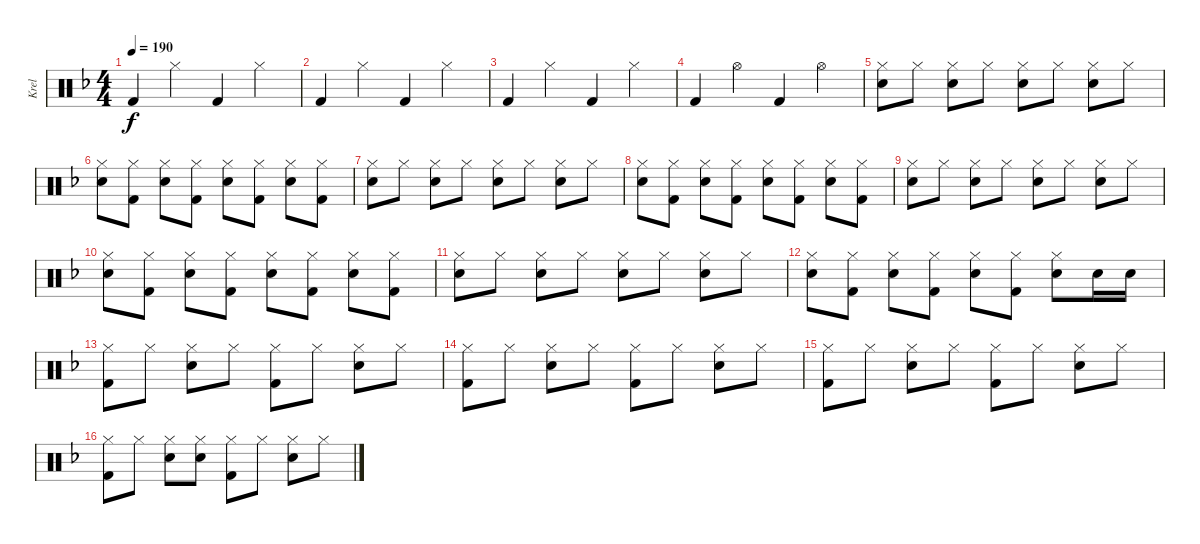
\track ("Krel" "Krel") {instrument percussion}
\staff {score}
\articulation defaults
\ts (4 4)
\tempo 190
\clef neutral
\ks f "Kick (hit) 2".4{dy f} "Hi-Hat (closed)".4 "Kick (hit) 2".4 "Hi-Hat (closed)".4
|
"Kick (hit) 2".4 "Hi-Hat (closed)".4 "Kick (hit) 2".4 "Hi-Hat (closed)".4 |
"Kick (hit) 2".4 "Hi-Hat (closed)".4 "Kick (hit) 2".4 "Hi-Hat (closed)".4 |
"Kick (hit) 2".4 "Hi-Hat (open)".4 "Kick (hit) 2".4 "Hi-Hat (open)".4 |
("Hi-Hat (closed)" "Snare (hit) 2").8 "Hi-Hat (closed)".8 ("Hi-Hat (closed)" "Snare (hit) 2").8 "Hi-Hat (closed)".8 ("Hi-Hat (closed)" "Snare (hit) 2").8 "Hi-Hat (closed)".8 ("Hi-Hat (closed)" "Snare (hit) 2").8 "Hi-Hat (closed)".8 |
("Hi-Hat (closed)" "Snare (hit) 2").8 ("Hi-Hat (closed)" "Kick (hit) 2").8 ("Hi-Hat (closed)" "Snare (hit) 2").8 ("Hi-Hat (closed)" "Kick (hit) 2").8 ("Hi-Hat (closed)" "Snare (hit) 2").8 ("Hi-Hat (closed)" "Kick (hit) 2").8 ("Hi-Hat (closed)" "Snare (hit) 2").8 ("Hi-Hat (closed)" "Kick (hit) 2").8 |
("Hi-Hat (closed)" "Snare (hit) 2").8 "Hi-Hat (closed)".8 ("Hi-Hat (closed)" "Snare (hit) 2").8 "Hi-Hat (closed)".8 ("Hi-Hat (closed)" "Snare (hit) 2").8 "Hi-Hat (closed)".8 ("Hi-Hat (closed)" "Snare (hit) 2").8 "Hi-Hat (closed)".8 |
("Hi-Hat (closed)" "Snare (hit) 2").8 ("Hi-Hat (closed)" "Kick (hit) 2").8 ("Hi-Hat (closed)" "Snare (hit) 2").8 ("Hi-Hat (closed)" "Kick (hit) 2").8 ("Hi-Hat (closed)" "Snare (hit) 2").8 ("Hi-Hat (closed)" "Kick (hit) 2").8 ("Hi-Hat (closed)" "Snare (hit) 2").8 ("Hi-Hat (closed)" "Kick (hit) 2").8 |
("Hi-Hat (closed)" "Snare (hit) 2").8 "Hi-Hat (closed)".8 ("Hi-Hat (closed)" "Snare (hit) 2").8 "Hi-Hat (closed)".8 ("Hi-Hat (closed)" "Snare (hit) 2").8 "Hi-Hat (closed)".8 ("Hi-Hat (closed)" "Snare (hit) 2").8 "Hi-Hat (closed)".8 |
("Hi-Hat (closed)" "Snare (hit) 2").8 ("Hi-Hat (closed)" "Kick (hit) 2").8 ("Hi-Hat (closed)" "Snare (hit) 2").8 ("Hi-Hat (closed)" "Kick (hit) 2").8 ("Hi-Hat (closed)" "Snare (hit) 2").8 ("Hi-Hat (closed)" "Kick (hit) 2").8 ("Hi-Hat (closed)" "Snare (hit) 2").8 ("Hi-Hat (closed)" "Kick (hit) 2").8 |
("Hi-Hat (closed)" "Snare (hit) 2").8 "Hi-Hat (closed)".8 ("Hi-Hat (closed)" "Snare (hit) 2").8 "Hi-Hat (closed)".8 ("Hi-Hat (closed)" "Snare (hit) 2").8 "Hi-Hat (closed)".8 ("Hi-Hat (closed)" "Snare (hit) 2").8 "Hi-Hat (closed)".8 |
("Hi-Hat (closed)" "Snare (hit) 2").8 ("Hi-Hat (closed)" "Kick (hit) 2").8 ("Hi-Hat (closed)" "Snare (hit) 2").8 ("Hi-Hat (closed)" "Kick (hit) 2").8 ("Hi-Hat (closed)" "Snare (hit) 2").8 ("Hi-Hat (closed)" "Kick (hit) 2").8 ("Hi-Hat (closed)" "Snare (hit) 2").8 "Snare (hit) 2".16 "Snare (hit) 2".16 |
("Hi-Hat (closed)" "Kick (hit) 2").8 "Hi-Hat (closed)".8 ("Hi-Hat (closed)" "Snare (hit) 2").8 "Hi-Hat (closed)".8 ("Hi-Hat (closed)" "Kick (hit) 2").8 "Hi-Hat (closed)".8 ("Hi-Hat (closed)" "Snare (hit) 2").8 "Hi-Hat (closed)".8 |
("Hi-Hat (closed)" "Kick (hit) 2").8 "Hi-Hat (closed)".8 ("Hi-Hat (closed)" "Snare (hit) 2").8 "Hi-Hat (closed)".8 ("Hi-Hat (closed)" "Kick (hit) 2").8 "Hi-Hat (closed)".8 ("Hi-Hat (closed)" "Snare (hit) 2").8 "Hi-Hat (closed)".8 |
("Hi-Hat (closed)" "Kick (hit) 2").8 "Hi-Hat (closed)".8 ("Hi-Hat (closed)" "Snare (hit) 2").8 "Hi-Hat (closed)".8 ("Hi-Hat (closed)" "Kick (hit) 2").8 "Hi-Hat (closed)".8 ("Hi-Hat (closed)" "Snare (hit) 2").8 "Hi-Hat (closed)".8 |
("Hi-Hat (closed)" "Kick (hit) 2").8 "Hi-Hat (closed)".8 ("Hi-Hat (closed)" "Snare (hit) 2").8 ("Hi-Hat (closed)" "Snare (hit) 2").8 ("Hi-Hat (closed)" "Kick (hit) 2").8 "Hi-Hat (closed)".8 ("Hi-Hat (closed)" "Snare (hit) 2").8 "Hi-Hat (closed)".8
